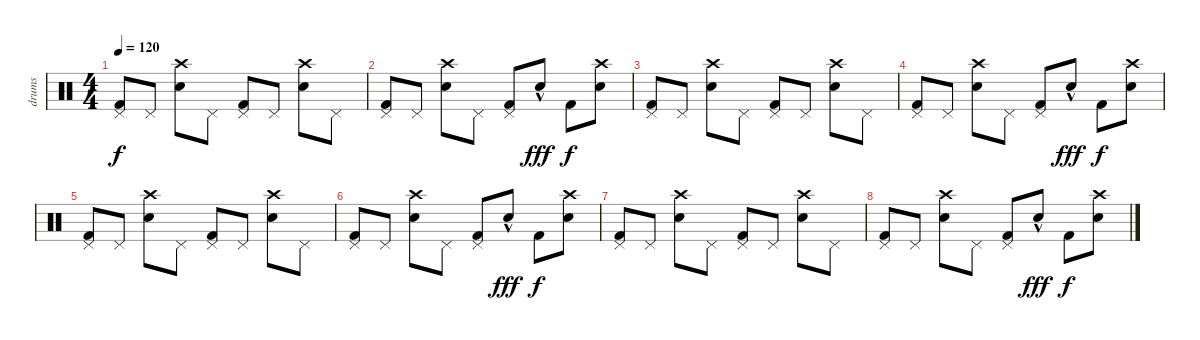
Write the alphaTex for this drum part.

\track ("drums" "drums") {instrument percussion}
\staff {score}
\articulation defaults
\ts (4 4)
\tempo 120
\clef neutral
\ks c
("Pedal Hi-Hat (hit)" "Kick (hit) 2").8{dy f} "Pedal Hi-Hat (hit)".8 ("Crash high (hit)" "Electric Snare (hit)").8 "Pedal Hi-Hat (hit)".8 ("Pedal Hi-Hat (hit)" "Kick (hit) 2").8 "Pedal Hi-Hat (hit)".8 ("Crash high (hit)" "Electric Snare (hit)").8 "Pedal Hi-Hat (hit)".8 |
("Pedal Hi-Hat (hit)" "Kick (hit) 2").8 "Pedal Hi-Hat (hit)".8 ("Crash high (hit)" "Electric Snare (hit)").8 "Pedal Hi-Hat (hit)".8 ("Pedal Hi-Hat (hit)" "Kick (hit) 2").8 "Electric Snare (hit)"{hac}.8{dy fff} "Kick (hit) 2".8{dy f} ("Crash high (hit)" "Electric Snare (hit)").8 |
("Pedal Hi-Hat (hit)" "Kick (hit) 2").8 "Pedal Hi-Hat (hit)".8 ("Crash high (hit)" "Electric Snare (hit)").8 "Pedal Hi-Hat (hit)".8 ("Pedal Hi-Hat (hit)" "Kick (hit) 2").8 "Pedal Hi-Hat (hit)".8 ("Crash high (hit)" "Electric Snare (hit)").8 "Pedal Hi-Hat (hit)".8 |
("Pedal Hi-Hat (hit)" "Kick (hit) 2").8 "Pedal Hi-Hat (hit)".8 ("Crash high (hit)" "Electric Snare (hit)").8 "Pedal Hi-Hat (hit)".8 ("Pedal Hi-Hat (hit)" "Kick (hit) 2").8 "Electric Snare (hit)"{hac}.8{dy fff} "Kick (hit) 2".8{dy f} ("Crash high (hit)" "Electric Snare (hit)").8 |
("Pedal Hi-Hat (hit)" "Kick (hit) 2").8 "Pedal Hi-Hat (hit)".8 ("Crash high (hit)" "Electric Snare (hit)").8 "Pedal Hi-Hat (hit)".8 ("Pedal Hi-Hat (hit)" "Kick (hit) 2").8 "Pedal Hi-Hat (hit)".8 ("Crash high (hit)" "Electric Snare (hit)").8 "Pedal Hi-Hat (hit)".8 |
("Pedal Hi-Hat (hit)" "Kick (hit) 2").8 "Pedal Hi-Hat (hit)".8 ("Crash high (hit)" "Electric Snare (hit)").8 "Pedal Hi-Hat (hit)".8 ("Pedal Hi-Hat (hit)" "Kick (hit) 2").8 "Electric Snare (hit)"{hac}.8{dy fff} "Kick (hit) 2".8{dy f} ("Crash high (hit)" "Electric Snare (hit)").8 |
("Pedal Hi-Hat (hit)" "Kick (hit) 2").8 "Pedal Hi-Hat (hit)".8 ("Crash high (hit)" "Electric Snare (hit)").8 "Pedal Hi-Hat (hit)".8 ("Pedal Hi-Hat (hit)" "Kick (hit) 2").8 "Pedal Hi-Hat (hit)".8 ("Crash high (hit)" "Electric Snare (hit)").8 "Pedal Hi-Hat (hit)".8 |
("Pedal Hi-Hat (hit)" "Kick (hit) 2").8 "Pedal Hi-Hat (hit)".8 ("Crash high (hit)" "Electric Snare (hit)").8 "Pedal Hi-Hat (hit)".8 ("Pedal Hi-Hat (hit)" "Kick (hit) 2").8 "Electric Snare (hit)"{hac}.8{dy fff} "Kick (hit) 2".8{dy f} ("Crash high (hit)" "Electric Snare (hit)").8
